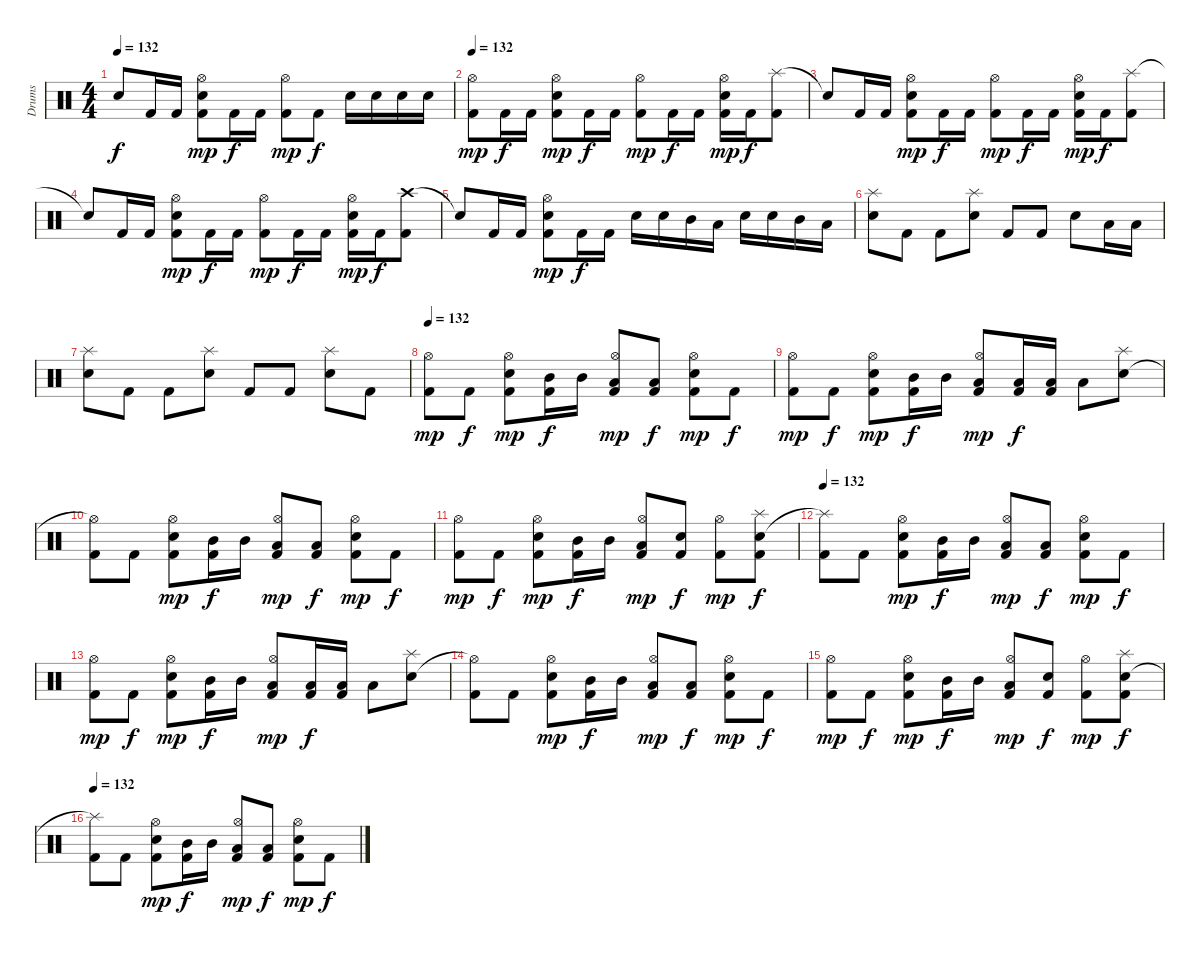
\track ("Drums" "Drums") {instrument percussion}
\staff {score}
\articulation defaults
\ts (4 4)
\tempo 132
\clef neutral
\ks c "Snare (hit)"{t}.8{dy f} "Kick (hit) 2".16 "Kick (hit) 2".16
("Snare (hit) 2" "Hi-Hat (open)" "Kick (hit) 2").8{dy mp} "Kick (hit) 2".16{dy f} "Kick (hit) 2".16 ("Hi-Hat (open)" "Kick (hit) 2").8{dy mp} "Kick (hit) 2".8{dy f} "Snare (hit) 2".16 "Snare (hit) 2".16 "Snare (hit) 2".16 "Snare (hit) 2".16 |
\tempo 132
("Hi-Hat (open)" "Kick (hit) 2").8{dy mp} "Kick (hit) 2".16{dy f} "Kick (hit) 2".16 ("Snare (hit) 2" "Hi-Hat (open)" "Kick (hit) 2").8{dy mp} "Kick (hit) 2".16{dy f} "Kick (hit) 2".16 ("Hi-Hat (open)" "Kick (hit) 2").8{dy mp} "Kick (hit) 2".16{dy f} "Kick (hit) 2".16 ("Snare (hit) 2" "Hi-Hat (open)" "Kick (hit) 2").16{dy mp} "Kick (hit) 2".16{dy f} ("Splash (hit)" "Kick (hit) 2").8 |
"Snare (hit)"{t}.8 "Kick (hit) 2".16 "Kick (hit) 2".16 ("Snare (hit) 2" "Hi-Hat (open)" "Kick (hit) 2").8{dy mp} "Kick (hit) 2".16{dy f} "Kick (hit) 2".16 ("Hi-Hat (open)" "Kick (hit) 2").8{dy mp} "Kick (hit) 2".16{dy f} "Kick (hit) 2".16 ("Snare (hit) 2" "Hi-Hat (open)" "Kick (hit) 2").16{dy mp} "Kick (hit) 2".16{dy f} ("Splash (hit)" "Kick (hit) 2").8 |
"Snare (hit)"{t}.8 "Kick (hit) 2".16 "Kick (hit) 2".16 ("Snare (hit) 2" "Hi-Hat (open)" "Kick (hit) 2").8{dy mp} "Kick (hit) 2".16{dy f} "Kick (hit) 2".16 ("Hi-Hat (open)" "Kick (hit) 2").8{dy mp} "Kick (hit) 2".16{dy f} "Kick (hit) 2".16 ("Snare (hit) 2" "Hi-Hat (open)" "Kick (hit) 2").16{dy mp} "Kick (hit) 2".16{dy f} ("Crash high (hit)" "Kick (hit) 2").8 |
"Snare (hit)"{t}.8 "Kick (hit) 2".16 "Kick (hit) 2".16 ("Snare (hit) 2" "Hi-Hat (open)" "Kick (hit) 2").8{dy mp} "Kick (hit) 2".16{dy f} "Kick (hit) 2".16 "Snare (hit) 2".16 "Snare (hit) 2".16 "Mid Tom (hit)".16 "Low Tom (hit)".16 "Snare (hit) 2".16 "Snare (hit) 2".16 "Mid Tom (hit)".16 "Low Tom (hit)".16 |
("Snare (hit) 2" "Splash (hit)").8 "Kick (hit) 2".8 "Kick (hit) 2".8 ("Snare (hit) 2" "Splash (hit)").8 "Kick (hit) 2".8 "Kick (hit) 2".8 "Snare (hit) 2".8 "Low Tom (hit)".16 "Low Tom (hit)".16 |
("Snare (hit) 2" "Splash (hit)").8 "Kick (hit) 2".8 "Kick (hit) 2".8 ("Snare (hit) 2" "Splash (hit)").8 "Kick (hit) 2".8 "Kick (hit) 2".8 ("Snare (hit) 2" "Splash (hit)").8 "Kick (hit) 2".8 |
\tempo 132
("Hi-Hat (open)" "Kick (hit) 2").8{dy mp} "Kick (hit) 2".8{dy f} ("Snare (hit) 2" "Hi-Hat (open)" "Kick (hit) 2").8{dy mp} ("Mid Tom (hit)" "Kick (hit) 2").16{dy f} "Mid Tom (hit)".16 ("Hi-Hat (open)" "Low Tom (hit)" "Kick (hit) 2").8{dy mp} ("Low Tom (hit)" "Kick (hit) 2").8{dy f} ("Snare (hit) 2" "Hi-Hat (open)" "Kick (hit) 2").8{dy mp} "Kick (hit) 2".8{dy f} |
("Hi-Hat (open)" "Kick (hit) 2").8{dy mp} "Kick (hit) 2".8{dy f} ("Snare (hit) 2" "Hi-Hat (open)" "Kick (hit) 2").8{dy mp} ("Mid Tom (hit)" "Kick (hit) 2").16{dy f} "Mid Tom (hit)".16 ("Hi-Hat (open)" "Low Tom (hit)" "Kick (hit) 2").8{dy mp} ("Low Tom (hit)" "Kick (hit) 2").16{dy f} ("Low Tom (hit)" "Kick (hit) 2").16 "Low Tom (hit)".8 ("Snare (hit) 2" "Splash (hit)").8 |
("Hi-Hat (open)"{t} "Kick (hit) 2").8 "Kick (hit) 2".8 ("Snare (hit) 2" "Hi-Hat (open)" "Kick (hit) 2").8{dy mp} ("Mid Tom (hit)" "Kick (hit) 2").16{dy f} "Mid Tom (hit)".16 ("Hi-Hat (open)" "Low Tom (hit)" "Kick (hit) 2").8{dy mp} ("Low Tom (hit)" "Kick (hit) 2").8{dy f} ("Snare (hit) 2" "Hi-Hat (open)" "Kick (hit) 2").8{dy mp} "Kick (hit) 2".8{dy f} |
("Hi-Hat (open)" "Kick (hit) 2").8{dy mp} "Kick (hit) 2".8{dy f} ("Snare (hit) 2" "Hi-Hat (open)" "Kick (hit) 2").8{dy mp} ("Mid Tom (hit)" "Kick (hit) 2").16{dy f} "Mid Tom (hit)".16 ("Hi-Hat (open)" "Low Tom (hit)" "Kick (hit) 2").8{dy mp} ("Snare (hit) 2" "Kick (hit) 2").8{dy f} ("Hi-Hat (open)" "Kick (hit) 2").8{dy mp} ("Snare (hit) 2" "Splash (hit)" "Kick (hit) 2").8{dy f} |
\tempo 132
("Splash (hit)"{t} "Kick (hit) 2").8 "Kick (hit) 2".8 ("Snare (hit) 2" "Hi-Hat (open)" "Kick (hit) 2").8{dy mp} ("Mid Tom (hit)" "Kick (hit) 2").16{dy f} "Mid Tom (hit)".16 ("Hi-Hat (open)" "Low Tom (hit)" "Kick (hit) 2").8{dy mp} ("Low Tom (hit)" "Kick (hit) 2").8{dy f} ("Snare (hit) 2" "Hi-Hat (open)" "Kick (hit) 2").8{dy mp} "Kick (hit) 2".8{dy f} |
("Hi-Hat (open)" "Kick (hit) 2").8{dy mp} "Kick (hit) 2".8{dy f} ("Snare (hit) 2" "Hi-Hat (open)" "Kick (hit) 2").8{dy mp} ("Mid Tom (hit)" "Kick (hit) 2").16{dy f} "Mid Tom (hit)".16 ("Hi-Hat (open)" "Low Tom (hit)" "Kick (hit) 2").8{dy mp} ("Low Tom (hit)" "Kick (hit) 2").16{dy f} ("Low Tom (hit)" "Kick (hit) 2").16 "Low Tom (hit)".8 ("Snare (hit) 2" "Splash (hit)").8 |
("Hi-Hat (open)"{t} "Kick (hit) 2").8 "Kick (hit) 2".8 ("Snare (hit) 2" "Hi-Hat (open)" "Kick (hit) 2").8{dy mp} ("Mid Tom (hit)" "Kick (hit) 2").16{dy f} "Mid Tom (hit)".16 ("Hi-Hat (open)" "Low Tom (hit)" "Kick (hit) 2").8{dy mp} ("Low Tom (hit)" "Kick (hit) 2").8{dy f} ("Snare (hit) 2" "Hi-Hat (open)" "Kick (hit) 2").8{dy mp} "Kick (hit) 2".8{dy f} |
("Hi-Hat (open)" "Kick (hit) 2").8{dy mp} "Kick (hit) 2".8{dy f} ("Snare (hit) 2" "Hi-Hat (open)" "Kick (hit) 2").8{dy mp} ("Mid Tom (hit)" "Kick (hit) 2").16{dy f} "Mid Tom (hit)".16 ("Hi-Hat (open)" "Low Tom (hit)" "Kick (hit) 2").8{dy mp} ("Snare (hit) 2" "Kick (hit) 2").8{dy f} ("Hi-Hat (open)" "Kick (hit) 2").8{dy mp} ("Snare (hit) 2" "Splash (hit)" "Kick (hit) 2").8{dy f} |
\tempo 132
("Splash (hit)"{t} "Kick (hit) 2").8 "Kick (hit) 2".8 ("Snare (hit) 2" "Hi-Hat (open)" "Kick (hit) 2").8{dy mp} ("Mid Tom (hit)" "Kick (hit) 2").16{dy f} "Mid Tom (hit)".16 ("Hi-Hat (open)" "Low Tom (hit)" "Kick (hit) 2").8{dy mp} ("Low Tom (hit)" "Kick (hit) 2").8{dy f} ("Snare (hit) 2" "Hi-Hat (open)" "Kick (hit) 2").8{dy mp} "Kick (hit) 2".8{dy f}
